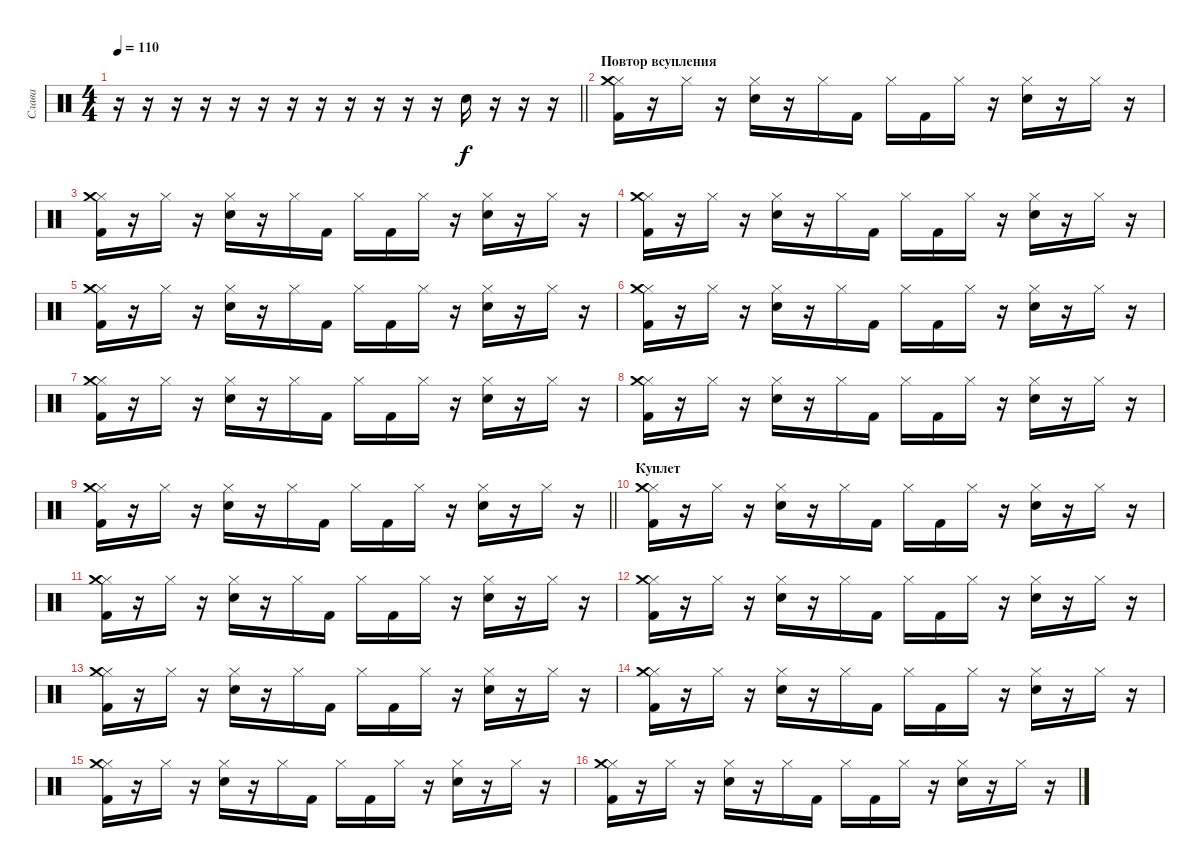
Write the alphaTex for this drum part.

\track ("Слава" "Слава") {instrument percussion}
\staff {score}
\articulation defaults
\ts (4 4)
\tempo 110
\clef neutral
\barLineRight lightlight
\ks c
r.16{dy f} r.16 r.16 r.16 r.16 r.16 r.16 r.16 r.16 r.16 r.16 r.16 "Electric Snare (hit)".16 r.16 r.16 r.16 |
\section ("" "Повтор всупления")
("Hi-Hat (closed)" "Crash medium (hit)" "Kick (hit) 2").16 r.16 "Hi-Hat (closed)".16 r.16 ("Hi-Hat (closed)" "Electric Snare (hit)").16 r.16 "Hi-Hat (closed)".16 "Kick (hit) 2".16 "Hi-Hat (closed)".16 "Kick (hit) 2".16 "Hi-Hat (closed)".16 r.16 ("Hi-Hat (closed)" "Electric Snare (hit)").16 r.16 "Hi-Hat (closed)".16 r.16 |
("Hi-Hat (closed)" "Crash medium (hit)" "Kick (hit) 2").16 r.16 "Hi-Hat (closed)".16 r.16 ("Hi-Hat (closed)" "Electric Snare (hit)").16 r.16 "Hi-Hat (closed)".16 "Kick (hit) 2".16 "Hi-Hat (closed)".16 "Kick (hit) 2".16 "Hi-Hat (closed)".16 r.16 ("Hi-Hat (closed)" "Electric Snare (hit)").16 r.16 "Hi-Hat (closed)".16 r.16 |
("Hi-Hat (closed)" "Crash medium (hit)" "Kick (hit) 2").16 r.16 "Hi-Hat (closed)".16 r.16 ("Hi-Hat (closed)" "Electric Snare (hit)").16 r.16 "Hi-Hat (closed)".16 "Kick (hit) 2".16 "Hi-Hat (closed)".16 "Kick (hit) 2".16 "Hi-Hat (closed)".16 r.16 ("Hi-Hat (closed)" "Electric Snare (hit)").16 r.16 "Hi-Hat (closed)".16 r.16 |
("Hi-Hat (closed)" "Crash medium (hit)" "Kick (hit) 2").16 r.16 "Hi-Hat (closed)".16 r.16 ("Hi-Hat (closed)" "Electric Snare (hit)").16 r.16 "Hi-Hat (closed)".16 "Kick (hit) 2".16 "Hi-Hat (closed)".16 "Kick (hit) 2".16 "Hi-Hat (closed)".16 r.16 ("Hi-Hat (closed)" "Electric Snare (hit)").16 r.16 "Hi-Hat (closed)".16 r.16 |
("Hi-Hat (closed)" "Crash medium (hit)" "Kick (hit) 2").16 r.16 "Hi-Hat (closed)".16 r.16 ("Hi-Hat (closed)" "Electric Snare (hit)").16 r.16 "Hi-Hat (closed)".16 "Kick (hit) 2".16 "Hi-Hat (closed)".16 "Kick (hit) 2".16 "Hi-Hat (closed)".16 r.16 ("Hi-Hat (closed)" "Electric Snare (hit)").16 r.16 "Hi-Hat (closed)".16 r.16 |
("Hi-Hat (closed)" "Crash medium (hit)" "Kick (hit) 2").16 r.16 "Hi-Hat (closed)".16 r.16 ("Hi-Hat (closed)" "Electric Snare (hit)").16 r.16 "Hi-Hat (closed)".16 "Kick (hit) 2".16 "Hi-Hat (closed)".16 "Kick (hit) 2".16 "Hi-Hat (closed)".16 r.16 ("Hi-Hat (closed)" "Electric Snare (hit)").16 r.16 "Hi-Hat (closed)".16 r.16 |
("Hi-Hat (closed)" "Crash medium (hit)" "Kick (hit) 2").16 r.16 "Hi-Hat (closed)".16 r.16 ("Hi-Hat (closed)" "Electric Snare (hit)").16 r.16 "Hi-Hat (closed)".16 "Kick (hit) 2".16 "Hi-Hat (closed)".16 "Kick (hit) 2".16 "Hi-Hat (closed)".16 r.16 ("Hi-Hat (closed)" "Electric Snare (hit)").16 r.16 "Hi-Hat (closed)".16 r.16 |
\barLineRight lightlight
("Hi-Hat (closed)" "Crash medium (hit)" "Kick (hit) 2").16 r.16 "Hi-Hat (closed)".16 r.16 ("Hi-Hat (closed)" "Electric Snare (hit)").16 r.16 "Hi-Hat (closed)".16 "Kick (hit) 2".16 "Hi-Hat (closed)".16 "Kick (hit) 2".16 "Hi-Hat (closed)".16 r.16 ("Hi-Hat (closed)" "Electric Snare (hit)").16 r.16 "Hi-Hat (closed)".16 r.16 |
\section ("" "Куплет")
("Hi-Hat (closed)" "Crash medium (hit)" "Kick (hit) 2").16 r.16 "Hi-Hat (closed)".16 r.16 ("Hi-Hat (closed)" "Electric Snare (hit)").16 r.16 "Hi-Hat (closed)".16 "Kick (hit) 2".16 "Hi-Hat (closed)".16 "Kick (hit) 2".16 "Hi-Hat (closed)".16 r.16 ("Hi-Hat (closed)" "Electric Snare (hit)").16 r.16 "Hi-Hat (closed)".16 r.16 |
("Hi-Hat (closed)" "Crash medium (hit)" "Kick (hit) 2").16 r.16 "Hi-Hat (closed)".16 r.16 ("Hi-Hat (closed)" "Electric Snare (hit)").16 r.16 "Hi-Hat (closed)".16 "Kick (hit) 2".16 "Hi-Hat (closed)".16 "Kick (hit) 2".16 "Hi-Hat (closed)".16 r.16 ("Hi-Hat (closed)" "Electric Snare (hit)").16 r.16 "Hi-Hat (closed)".16 r.16 |
("Hi-Hat (closed)" "Crash medium (hit)" "Kick (hit) 2").16 r.16 "Hi-Hat (closed)".16 r.16 ("Hi-Hat (closed)" "Electric Snare (hit)").16 r.16 "Hi-Hat (closed)".16 "Kick (hit) 2".16 "Hi-Hat (closed)".16 "Kick (hit) 2".16 "Hi-Hat (closed)".16 r.16 ("Hi-Hat (closed)" "Electric Snare (hit)").16 r.16 "Hi-Hat (closed)".16 r.16 |
("Hi-Hat (closed)" "Crash medium (hit)" "Kick (hit) 2").16 r.16 "Hi-Hat (closed)".16 r.16 ("Hi-Hat (closed)" "Electric Snare (hit)").16 r.16 "Hi-Hat (closed)".16 "Kick (hit) 2".16 "Hi-Hat (closed)".16 "Kick (hit) 2".16 "Hi-Hat (closed)".16 r.16 ("Hi-Hat (closed)" "Electric Snare (hit)").16 r.16 "Hi-Hat (closed)".16 r.16 |
("Hi-Hat (closed)" "Crash medium (hit)" "Kick (hit) 2").16 r.16 "Hi-Hat (closed)".16 r.16 ("Hi-Hat (closed)" "Electric Snare (hit)").16 r.16 "Hi-Hat (closed)".16 "Kick (hit) 2".16 "Hi-Hat (closed)".16 "Kick (hit) 2".16 "Hi-Hat (closed)".16 r.16 ("Hi-Hat (closed)" "Electric Snare (hit)").16 r.16 "Hi-Hat (closed)".16 r.16 |
("Hi-Hat (closed)" "Crash medium (hit)" "Kick (hit) 2").16 r.16 "Hi-Hat (closed)".16 r.16 ("Hi-Hat (closed)" "Electric Snare (hit)").16 r.16 "Hi-Hat (closed)".16 "Kick (hit) 2".16 "Hi-Hat (closed)".16 "Kick (hit) 2".16 "Hi-Hat (closed)".16 r.16 ("Hi-Hat (closed)" "Electric Snare (hit)").16 r.16 "Hi-Hat (closed)".16 r.16 |
("Hi-Hat (closed)" "Crash medium (hit)" "Kick (hit) 2").16 r.16 "Hi-Hat (closed)".16 r.16 ("Hi-Hat (closed)" "Electric Snare (hit)").16 r.16 "Hi-Hat (closed)".16 "Kick (hit) 2".16 "Hi-Hat (closed)".16 "Kick (hit) 2".16 "Hi-Hat (closed)".16 r.16 ("Hi-Hat (closed)" "Electric Snare (hit)").16 r.16 "Hi-Hat (closed)".16 r.16
